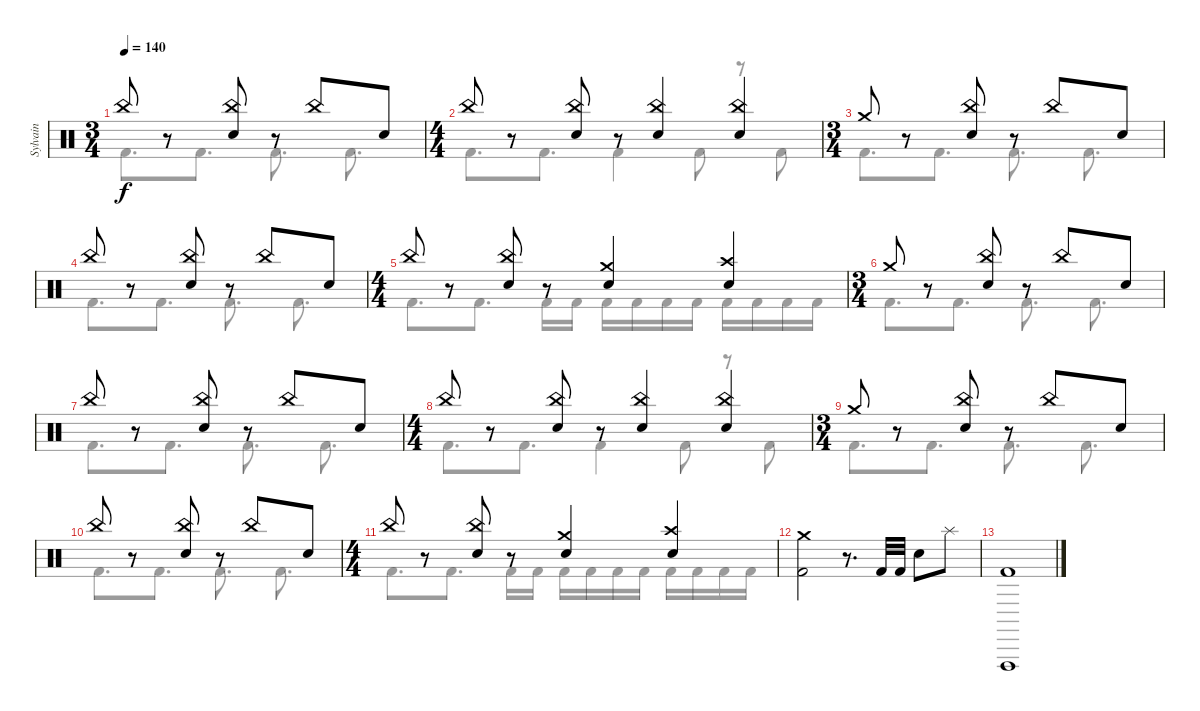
\track ("Sylvain" "Sylvain") {instrument percussion}
\staff {score}
\articulation defaults
\voice
\ts (3 4)
\tempo 140
\clef neutral
\ks c "China (hit)".8{dy f}
r.8 ("China (hit)" "Snare (hit) 2").8 r.8 "China (hit)".8 "Snare (hit) 2".8 |
\ts (4 4)
"China (hit)".8 r.8 ("China (hit)" "Snare (hit) 2").8 r.8 ("China (hit)" "Snare (hit) 2").4 ("China (hit)" "Snare (hit) 2").4 |
\ts (3 4)
"Crash medium (hit)".8 r.8 ("China (hit)" "Snare (hit) 2").8 r.8 "China (hit)".8 "Snare (hit) 2".8 |
"China (hit)".8 r.8 ("China (hit)" "Snare (hit) 2").8 r.8 "China (hit)".8 "Snare (hit) 2".8 |
\ts (4 4)
"China (hit)".8 r.8 ("China (hit)" "Snare (hit) 2").8 r.8 ("Crash medium (hit)" "Snare (hit) 2").4 ("Crash high (hit)" "Snare (hit) 2").4 |
\ts (3 4)
"Crash medium (hit)".8 r.8 ("China (hit)" "Snare (hit) 2").8 r.8 "China (hit)".8 "Snare (hit) 2".8 |
"China (hit)".8 r.8 ("China (hit)" "Snare (hit) 2").8 r.8 "China (hit)".8 "Snare (hit) 2".8 |
\ts (4 4)
"China (hit)".8 r.8 ("China (hit)" "Snare (hit) 2").8 r.8 ("China (hit)" "Snare (hit) 2").4 ("China (hit)" "Snare (hit) 2").4 |
\ts (3 4)
"Crash medium (hit)".8 r.8 ("China (hit)" "Snare (hit) 2").8 r.8 "China (hit)".8 "Snare (hit) 2".8 |
"China (hit)".8 r.8 ("China (hit)" "Snare (hit) 2").8 r.8 "China (hit)".8 "Snare (hit) 2".8 |
\ts (4 4)
"China (hit)".8 r.8 ("China (hit)" "Snare (hit) 2").8 r.8 ("Crash medium (hit)" "Snare (hit) 2").4 ("Crash high (hit)" "Snare (hit) 2").4 |
("Crash medium (hit)" "Kick (hit) 2").2 r.8{d} "Kick (hit) 2".32 "Kick (hit) 2".32 "Snare (hit) 2".8 "Splash (hit)".8 |
("Vibraslap (hit)" "Kick (hit) 2").1 |
\voice
\clef neutral
\ottava regular
\simile none
\ks c "Kick (hit) 2".8{d dy f} "Kick (hit) 2".8{d} "Kick (hit) 2".8{d} "Kick (hit) 2".8{d}
|
"Kick (hit) 2".8{d} "Kick (hit) 2".8{d} "Kick (hit) 2".4 "Kick (hit) 2".8 r.8 "Kick (hit) 2".8 |
"Kick (hit) 2".8{d} "Kick (hit) 2".8{d} "Kick (hit) 2".8{d} "Kick (hit) 2".8{d} |
"Kick (hit) 2".8{d} "Kick (hit) 2".8{d} "Kick (hit) 2".8{d} "Kick (hit) 2".8{d} |
"Kick (hit) 2".8{d} "Kick (hit) 2".8{d} "Kick (hit) 2".16 "Kick (hit) 2".16 "Kick (hit) 2".16 "Kick (hit) 2".16 "Kick (hit) 2".16 "Kick (hit) 2".16 "Kick (hit) 2".16 "Kick (hit) 2".16 "Kick (hit) 2".16 "Kick (hit) 2".16 |
"Kick (hit) 2".8{d} "Kick (hit) 2".8{d} "Kick (hit) 2".8{d} "Kick (hit) 2".8{d} |
"Kick (hit) 2".8{d} "Kick (hit) 2".8{d} "Kick (hit) 2".8{d} "Kick (hit) 2".8{d} |
"Kick (hit) 2".8{d} "Kick (hit) 2".8{d} "Kick (hit) 2".4 "Kick (hit) 2".8 r.8 "Kick (hit) 2".8 |
"Kick (hit) 2".8{d} "Kick (hit) 2".8{d} "Kick (hit) 2".8{d} "Kick (hit) 2".8{d} |
"Kick (hit) 2".8{d} "Kick (hit) 2".8{d} "Kick (hit) 2".8{d} "Kick (hit) 2".8{d} |
"Kick (hit) 2".8{d} "Kick (hit) 2".8{d} "Kick (hit) 2".16 "Kick (hit) 2".16 "Kick (hit) 2".16 "Kick (hit) 2".16 "Kick (hit) 2".16 "Kick (hit) 2".16 "Kick (hit) 2".16 "Kick (hit) 2".16 "Kick (hit) 2".16 "Kick (hit) 2".16 |
|
|
